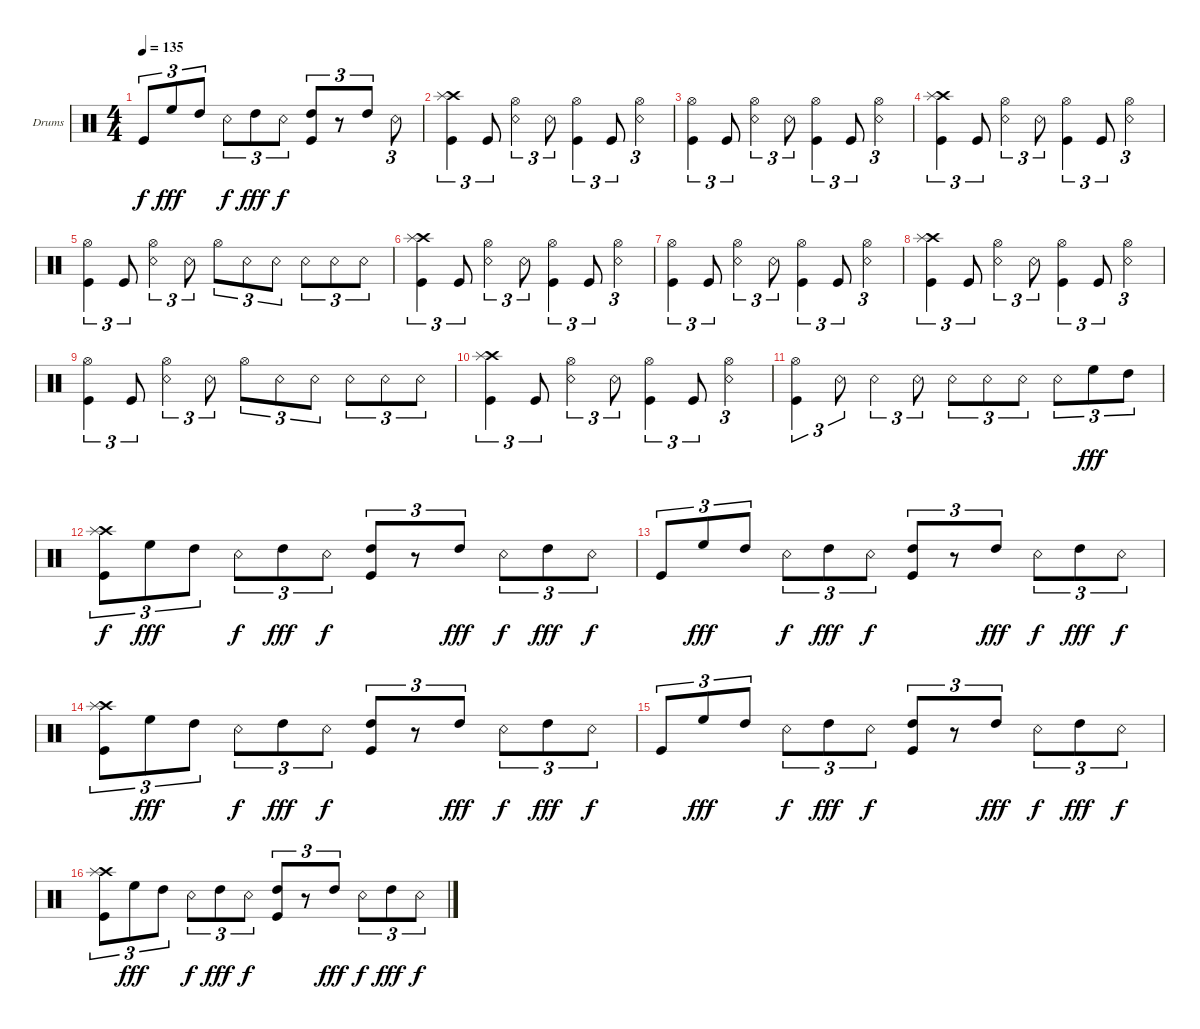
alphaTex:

\bracketExtendMode groupsimilarinstruments
\firstSystemTrackNameOrientation horizontal
\otherSystemsTrackNameOrientation horizontal
\track ("Drumkit" "Drums") {instrument percussion}
\staff {score}
\articulation defaults
\ts (4 4)
\tempo 135
\clef neutral
\scale
0.218391
\ks c "Kick (hit)".8{tu (3 2) dy f} "High Floor Tom (hit)".8{tu (3 2) dy fff} "High Tom (hit)".8{tu (3 2)} "Snare (rim shot)".8{tu (3 2) dy f} "High Tom (hit)".8{tu (3 2) dy fff} "Snare (rim shot)".8{tu (3 2) dy f}
("Kick (hit)" "High Tom (hit)").8{tu (3 2)} r.8{tu (3 2)} "High Tom (hit)".8{tu (3 2)} "Snare (rim shot)".8{tu (3 2)} |
\scale
0.390805 ("Kick (hit)" "Crash high (hit)" "Splash (hit)").4{tu (3 2)} "Kick (hit)".8{tu (3 2)} ("Snare (rim shot)" "Hi-Hat (open)").4{tu (3 2)} "Snare (rim shot)".8{tu (3 2)} ("Kick (hit)" "Hi-Hat (open)").4{tu (3 2)} "Kick (hit)".8{tu (3 2)} ("Snare (rim shot)" "Hi-Hat (open)").4{tu (3 2)} |
\scale
0.333333 ("Kick (hit)" "Hi-Hat (open)").4{tu (3 2)} "Kick (hit)".8{tu (3 2)} ("Snare (rim shot)" "Hi-Hat (open)").4{tu (3 2)} "Snare (rim shot)".8{tu (3 2)} ("Kick (hit)" "Hi-Hat (open)").4{tu (3 2)} "Kick (hit)".8{tu (3 2)} ("Snare (rim shot)" "Hi-Hat (open)").4{tu (3 2)} |
\scale
0.333333 ("Kick (hit)" "Crash high (hit)" "Splash (hit)").4{tu (3 2)} "Kick (hit)".8{tu (3 2)} ("Snare (rim shot)" "Hi-Hat (open)").4{tu (3 2)} "Snare (rim shot)".8{tu (3 2)} ("Kick (hit)" "Hi-Hat (open)").4{tu (3 2)} "Kick (hit)".8{tu (3 2)} ("Snare (rim shot)" "Hi-Hat (open)").4{tu (3 2)} |
\scale
0.333333 ("Kick (hit)" "Hi-Hat (open)").4{tu (3 2)} "Kick (hit)".8{tu (3 2)} ("Snare (rim shot)" "Hi-Hat (open)").4{tu (3 2)} "Snare (rim shot)".8{tu (3 2)} "Hi-Hat (open)".8{tu (3 2)} "Snare (rim shot)".8{tu (3 2)} "Snare (rim shot)".8{tu (3 2)} "Snare (rim shot)".8{tu (3 2)} "Snare (rim shot)".8{tu (3 2)} "Snare (rim shot)".8{tu (3 2)} |
\scale
0.333333 ("Kick (hit)" "Crash high (hit)" "Splash (hit)").4{tu (3 2)} "Kick (hit)".8{tu (3 2)} ("Snare (rim shot)" "Hi-Hat (open)").4{tu (3 2)} "Snare (rim shot)".8{tu (3 2)} ("Kick (hit)" "Hi-Hat (open)").4{tu (3 2)} "Kick (hit)".8{tu (3 2)} ("Snare (rim shot)" "Hi-Hat (open)").4{tu (3 2)} |
\scale
0.333333 ("Kick (hit)" "Hi-Hat (open)").4{tu (3 2)} "Kick (hit)".8{tu (3 2)} ("Snare (rim shot)" "Hi-Hat (open)").4{tu (3 2)} "Snare (rim shot)".8{tu (3 2)} ("Kick (hit)" "Hi-Hat (open)").4{tu (3 2)} "Kick (hit)".8{tu (3 2)} ("Snare (rim shot)" "Hi-Hat (open)").4{tu (3 2)} |
\scale
0.333333 ("Kick (hit)" "Crash high (hit)" "Splash (hit)").4{tu (3 2)} "Kick (hit)".8{tu (3 2)} ("Snare (rim shot)" "Hi-Hat (open)").4{tu (3 2)} "Snare (rim shot)".8{tu (3 2)} ("Kick (hit)" "Hi-Hat (open)").4{tu (3 2)} "Kick (hit)".8{tu (3 2)} ("Snare (rim shot)" "Hi-Hat (open)").4{tu (3 2)} |
\scale
0.333333 ("Kick (hit)" "Hi-Hat (open)").4{tu (3 2)} "Kick (hit)".8{tu (3 2)} ("Snare (rim shot)" "Hi-Hat (open)").4{tu (3 2)} "Snare (rim shot)".8{tu (3 2)} "Hi-Hat (open)".8{tu (3 2)} "Snare (rim shot)".8{tu (3 2)} "Snare (rim shot)".8{tu (3 2)} "Snare (rim shot)".8{tu (3 2)} "Snare (rim shot)".8{tu (3 2)} "Snare (rim shot)".8{tu (3 2)} |
\scale
0.333333 ("Kick (hit)" "Crash high (hit)" "Splash (hit)").4{tu (3 2)} "Kick (hit)".8{tu (3 2)} ("Snare (rim shot)" "Hi-Hat (open)").4{tu (3 2)} "Snare (rim shot)".8{tu (3 2)} ("Kick (hit)" "Hi-Hat (open)").4{tu (3 2)} "Kick (hit)".8{tu (3 2)} ("Snare (rim shot)" "Hi-Hat (open)").4{tu (3 2)} |
\scale
0.333333 ("Kick (hit)" "Hi-Hat (open)").4{tu (3 2)} "Snare (rim shot)".8{tu (3 2)} "Snare (rim shot)".4{tu (3 2)} "Snare (rim shot)".8{tu (3 2)} "Snare (rim shot)".8{tu (3 2)} "Snare (rim shot)".8{tu (3 2)} "Snare (rim shot)".8{tu (3 2)} "Snare (rim shot)".8{tu (3 2)} "High Floor Tom (hit)".8{tu (3 2) dy fff} "High Tom (hit)".8{tu (3 2)} |
\scale
0.333333 ("Kick (hit)" "Crash high (hit)" "Splash (hit)").8{tu (3 2) dy f} "High Floor Tom (hit)".8{tu (3 2) dy fff} "High Tom (hit)".8{tu (3 2)} "Snare (rim shot)".8{tu (3 2) dy f} "High Tom (hit)".8{tu (3 2) dy fff} "Snare (rim shot)".8{tu (3 2) dy f} ("Kick (hit)" "High Tom (hit)").8{tu (3 2)} r.8{tu (3 2)} "High Tom (hit)".8{tu (3 2) dy fff} "Snare (rim shot)".8{tu (3 2) dy f} "High Tom (hit)".8{tu (3 2) dy fff} "Snare (rim shot)".8{tu (3 2) dy f} |
\scale
0.333333 "Kick (hit)".8{tu (3 2)} "High Floor Tom (hit)".8{tu (3 2) dy fff} "High Tom (hit)".8{tu (3 2)} "Snare (rim shot)".8{tu (3 2) dy f} "High Tom (hit)".8{tu (3 2) dy fff} "Snare (rim shot)".8{tu (3 2) dy f} ("Kick (hit)" "High Tom (hit)").8{tu (3 2)} r.8{tu (3 2)} "High Tom (hit)".8{tu (3 2) dy fff} "Snare (rim shot)".8{tu (3 2) dy f} "High Tom (hit)".8{tu (3 2) dy fff} "Snare (rim shot)".8{tu (3 2) dy f} |
\scale
0.333333 ("Kick (hit)" "Crash high (hit)" "Splash (hit)").8{tu (3 2)} "High Floor Tom (hit)".8{tu (3 2) dy fff} "High Tom (hit)".8{tu (3 2)} "Snare (rim shot)".8{tu (3 2) dy f} "High Tom (hit)".8{tu (3 2) dy fff} "Snare (rim shot)".8{tu (3 2) dy f} ("Kick (hit)" "High Tom (hit)").8{tu (3 2)} r.8{tu (3 2)} "High Tom (hit)".8{tu (3 2) dy fff} "Snare (rim shot)".8{tu (3 2) dy f} "High Tom (hit)".8{tu (3 2) dy fff} "Snare (rim shot)".8{tu (3 2) dy f} |
\scale
0.333333 "Kick (hit)".8{tu (3 2)} "High Floor Tom (hit)".8{tu (3 2) dy fff} "High Tom (hit)".8{tu (3 2)} "Snare (rim shot)".8{tu (3 2) dy f} "High Tom (hit)".8{tu (3 2) dy fff} "Snare (rim shot)".8{tu (3 2) dy f} ("Kick (hit)" "High Tom (hit)").8{tu (3 2)} r.8{tu (3 2)} "High Tom (hit)".8{tu (3 2) dy fff} "Snare (rim shot)".8{tu (3 2) dy f} "High Tom (hit)".8{tu (3 2) dy fff} "Snare (rim shot)".8{tu (3 2) dy f} |
\scale
0.333333 ("Kick (hit)" "Crash high (hit)" "Splash (hit)").8{tu (3 2)} "High Floor Tom (hit)".8{tu (3 2) dy fff} "High Tom (hit)".8{tu (3 2)} "Snare (rim shot)".8{tu (3 2) dy f} "High Tom (hit)".8{tu (3 2) dy fff} "Snare (rim shot)".8{tu (3 2) dy f} ("Kick (hit)" "High Tom (hit)").8{tu (3 2)} r.8{tu (3 2)} "High Tom (hit)".8{tu (3 2) dy fff} "Snare (rim shot)".8{tu (3 2) dy f} "High Tom (hit)".8{tu (3 2) dy fff} "Snare (rim shot)".8{tu (3 2) dy f}
